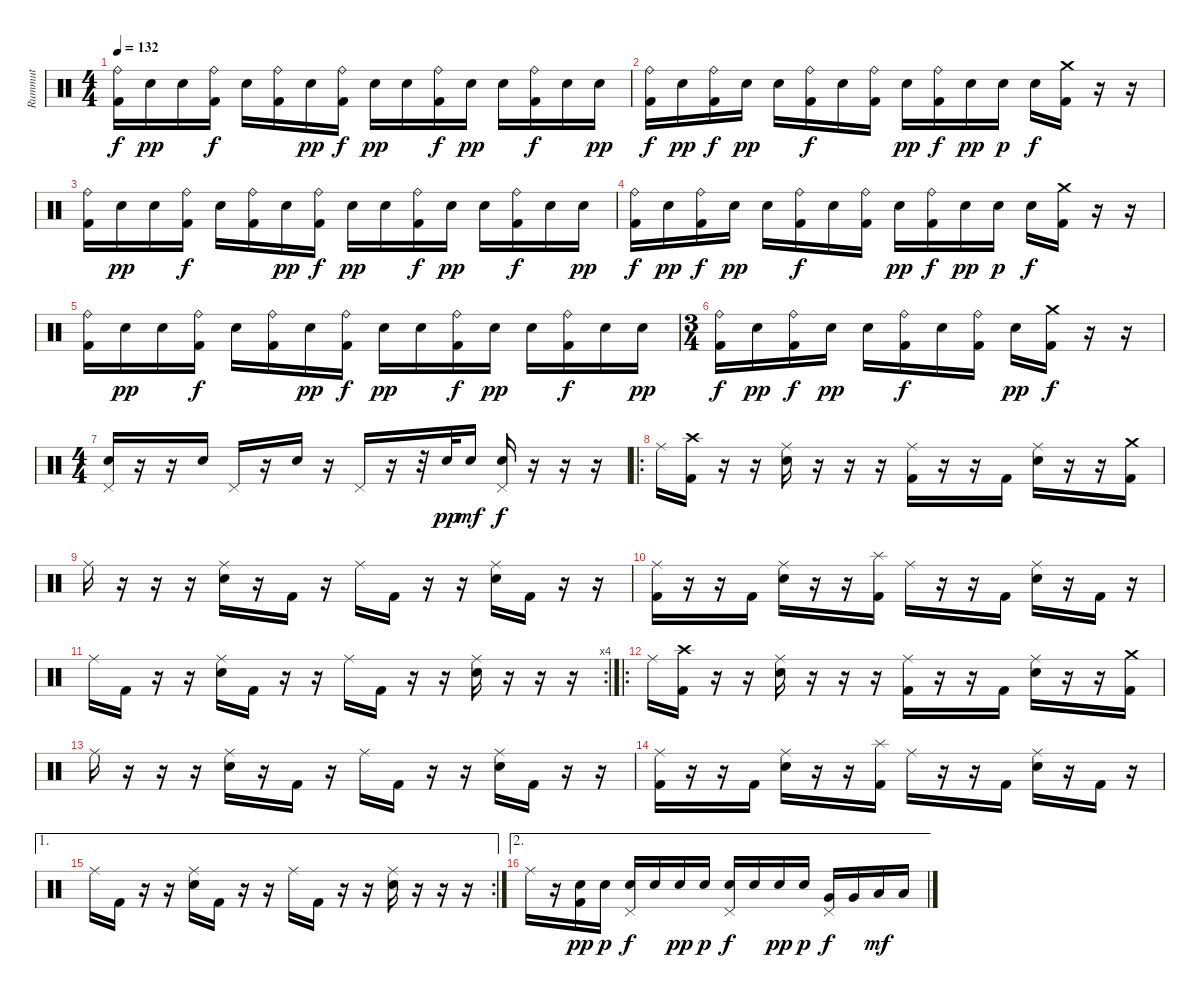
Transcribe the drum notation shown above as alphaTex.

\track ("Rummut" "Rummut") {instrument percussion}
\staff {score}
\articulation defaults
\ts (4 4)
\tempo 132
\clef neutral
\ks c
("Ride (bell)" "Kick (hit) 2").16{dy f} "Electric Snare (hit)".16{dy pp} "Electric Snare (hit)".16 ("Ride (bell)" "Kick (hit) 2").16{dy f} "Electric Snare (hit)".16 ("Ride (bell)" "Kick (hit) 2").16 "Electric Snare (hit)".16{dy pp} ("Ride (bell)" "Kick (hit) 2").16{dy f} "Electric Snare (hit)".16{dy pp} "Electric Snare (hit)".16 ("Ride (bell)" "Kick (hit) 2").16{dy f} "Electric Snare (hit)".16{dy pp} "Electric Snare (hit)".16 ("Ride (bell)" "Kick (hit) 2").16{dy f} "Electric Snare (hit)".16 "Electric Snare (hit)".16{dy pp} |
("Ride (bell)" "Kick (hit) 2").16{dy f} "Electric Snare (hit)".16{dy pp} ("Ride (bell)" "Kick (hit) 2").16{dy f} "Electric Snare (hit)".16{dy pp} "Electric Snare (hit)".16 ("Ride (bell)" "Kick (hit) 2").16{dy f} "Electric Snare (hit)".16 ("Ride (bell)" "Kick (hit) 2").16 "Electric Snare (hit)".16{dy pp} ("Ride (bell)" "Kick (hit) 2").16{dy f} "Electric Snare (hit)".16{dy pp} "Electric Snare (hit)".16{dy p} "Electric Snare (hit)".16{dy f} ("Crash medium (hit)" "Kick (hit) 2").16 r.16 r.16 |
("Ride (bell)" "Kick (hit) 2").16 "Electric Snare (hit)".16{dy pp} "Electric Snare (hit)".16 ("Ride (bell)" "Kick (hit) 2").16{dy f} "Electric Snare (hit)".16 ("Ride (bell)" "Kick (hit) 2").16 "Electric Snare (hit)".16{dy pp} ("Ride (bell)" "Kick (hit) 2").16{dy f} "Electric Snare (hit)".16{dy pp} "Electric Snare (hit)".16 ("Ride (bell)" "Kick (hit) 2").16{dy f} "Electric Snare (hit)".16{dy pp} "Electric Snare (hit)".16 ("Ride (bell)" "Kick (hit) 2").16{dy f} "Electric Snare (hit)".16 "Electric Snare (hit)".16{dy pp} |
("Ride (bell)" "Kick (hit) 2").16{dy f} "Electric Snare (hit)".16{dy pp} ("Ride (bell)" "Kick (hit) 2").16{dy f} "Electric Snare (hit)".16{dy pp} "Electric Snare (hit)".16 ("Ride (bell)" "Kick (hit) 2").16{dy f} "Electric Snare (hit)".16 ("Ride (bell)" "Kick (hit) 2").16 "Electric Snare (hit)".16{dy pp} ("Ride (bell)" "Kick (hit) 2").16{dy f} "Electric Snare (hit)".16{dy pp} "Electric Snare (hit)".16{dy p} "Electric Snare (hit)".16{dy f} ("Crash medium (hit)" "Kick (hit) 2").16 r.16 r.16 |
("Ride (bell)" "Kick (hit) 2").16 "Electric Snare (hit)".16{dy pp} "Electric Snare (hit)".16 ("Ride (bell)" "Kick (hit) 2").16{dy f} "Electric Snare (hit)".16 ("Ride (bell)" "Kick (hit) 2").16 "Electric Snare (hit)".16{dy pp} ("Ride (bell)" "Kick (hit) 2").16{dy f} "Electric Snare (hit)".16{dy pp} "Electric Snare (hit)".16 ("Ride (bell)" "Kick (hit) 2").16{dy f} "Electric Snare (hit)".16{dy pp} "Electric Snare (hit)".16 ("Ride (bell)" "Kick (hit) 2").16{dy f} "Electric Snare (hit)".16 "Electric Snare (hit)".16{dy pp} |
\ts (3 4)
("Ride (bell)" "Kick (hit) 2").16{dy f} "Electric Snare (hit)".16{dy pp} ("Ride (bell)" "Kick (hit) 2").16{dy f} "Electric Snare (hit)".16{dy pp} "Electric Snare (hit)".16 ("Ride (bell)" "Kick (hit) 2").16{dy f} "Electric Snare (hit)".16 ("Ride (bell)" "Kick (hit) 2").16 "Electric Snare (hit)".16{dy pp} ("Crash medium (hit)" "Kick (hit) 2").16{dy f} r.16 r.16 |
\ts (4 4)
("Pedal Hi-Hat (hit)" "Electric Snare (hit)").16 r.16 r.16 "Electric Snare (hit)".16 "Pedal Hi-Hat (hit)".16 r.16 "Electric Snare (hit)".16 r.16 "Pedal Hi-Hat (hit)".16 r.16 r.32 "Electric Snare (hit)".32{dy pp} "Electric Snare (hit)".16{dy mf} ("Pedal Hi-Hat (hit)" "Electric Snare (hit)").16{dy f} r.16 r.16 r.16 |
\ro "Ride (middle)".16
("Crash high (hit)" "Kick (hit) 2").16 r.16 r.16 ("Ride (middle)" "Electric Snare (hit)").16 r.16 r.16 r.16 ("Ride (middle)" "Kick (hit) 2").16 r.16 r.16 "Kick (hit) 2".16 ("Ride (middle)" "Electric Snare (hit)").16 r.16 r.16 ("Crash medium (hit)" "Kick (hit) 2").16 |
"Ride (middle)".16 r.16 r.16 r.16 ("Ride (middle)" "Electric Snare (hit)").16 r.16 "Kick (hit) 2".16 r.16 "Ride (middle)".16 "Kick (hit) 2".16 r.16 r.16 ("Ride (middle)" "Electric Snare (hit)").16 "Kick (hit) 2".16 r.16 r.16 |
("Ride (middle)" "Kick (hit) 2").16 r.16 r.16 "Kick (hit) 2".16 ("Ride (middle)" "Electric Snare (hit)").16 r.16 r.16 ("Splash (hit)" "Kick (hit) 2").16 "Ride (middle)".16 r.16 r.16 "Kick (hit) 2".16 ("Ride (middle)" "Electric Snare (hit)").16 r.16 "Kick (hit) 2".16 r.16 |
\rc 4 "Ride (middle)".16 "Kick (hit) 2".16
r.16 r.16 ("Ride (middle)" "Electric Snare (hit)").16 "Kick (hit) 2".16 r.16 r.16 "Ride (middle)".16 "Kick (hit) 2".16 r.16 r.16 ("Ride (middle)" "Electric Snare (hit)").16 r.16 r.16 r.16 |
\ro "Ride (middle)".16
("Crash high (hit)" "Kick (hit) 2").16 r.16 r.16 ("Ride (middle)" "Electric Snare (hit)").16 r.16 r.16 r.16 ("Ride (middle)" "Kick (hit) 2").16 r.16 r.16 "Kick (hit) 2".16 ("Ride (middle)" "Electric Snare (hit)").16 r.16 r.16 ("Crash medium (hit)" "Kick (hit) 2").16 |
"Ride (middle)".16 r.16 r.16 r.16 ("Ride (middle)" "Electric Snare (hit)").16 r.16 "Kick (hit) 2".16 r.16 "Ride (middle)".16 "Kick (hit) 2".16 r.16 r.16 ("Ride (middle)" "Electric Snare (hit)").16 "Kick (hit) 2".16 r.16 r.16 |
("Ride (middle)" "Kick (hit) 2").16 r.16 r.16 "Kick (hit) 2".16 ("Ride (middle)" "Electric Snare (hit)").16 r.16 r.16 ("Splash (hit)" "Kick (hit) 2").16 "Ride (middle)".16 r.16 r.16 "Kick (hit) 2".16 ("Ride (middle)" "Electric Snare (hit)").16 r.16 "Kick (hit) 2".16 r.16 |
\ae 1
\rc 2 "Ride (middle)".16 "Kick (hit) 2".16
r.16 r.16 ("Ride (middle)" "Electric Snare (hit)").16 "Kick (hit) 2".16 r.16 r.16 "Ride (middle)".16 "Kick (hit) 2".16 r.16 r.16 ("Ride (middle)" "Electric Snare (hit)").16 r.16 r.16 r.16 |
\ae 2 "Ride (middle)".16
r.16 ("Electric Snare (hit)" "Kick (hit) 2").16{dy pp} "Electric Snare (hit)".16{dy p} ("Pedal Hi-Hat (hit)" "Electric Snare (hit)").16{dy f} "Electric Snare (hit)".16 "Electric Snare (hit)".16{dy pp} "Electric Snare (hit)".16{dy p} ("Pedal Hi-Hat (hit)" "Electric Snare (hit)").16{dy f} "Electric Snare (hit)".16 "Electric Snare (hit)".16{dy pp} "Electric Snare (hit)".16{dy p} ("Pedal Hi-Hat (hit)" "Very Low Tom (hit)").16{dy f} "Very Low Tom (hit)".16 "Low Floor Tom (hit)".16{dy mf} "Low Floor Tom (hit)".16
